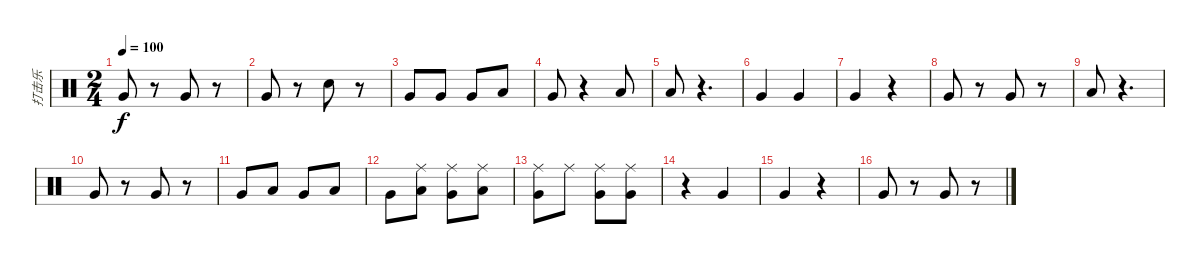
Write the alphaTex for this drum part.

\track ("打击乐" "打击乐") {instrument percussion}
\staff {score}
\articulation defaults
\ts (2 4)
\tempo 100
\clef neutral
\ks c "Very Low Tom (hit)".8{dy f}
r.8 "Very Low Tom (hit)".8 r.8 |
"Very Low Tom (hit)".8 r.8 "Electric Snare (hit)".8 r.8 |
"Very Low Tom (hit)".8 "Very Low Tom (hit)".8 "Very Low Tom (hit)".8 "Low Floor Tom (hit)".8 |
"Very Low Tom (hit)".8 r.4 "Low Floor Tom (hit)".8 |
"Low Tom (hit)".8 r.4{d} |
"Very Low Tom (hit)".4 "Very Low Tom (hit)".4 |
"Very Low Tom (hit)".4 r.4 |
"Very Low Tom (hit)".8 r.8 "Very Low Tom (hit)".8 r.8 |
"Low Floor Tom (hit)".8 r.4{d} |
"Very Low Tom (hit)".8 r.8 "Very Low Tom (hit)".8 r.8 |
"Very Low Tom (hit)".8 "Low Floor Tom (hit)".8 "Very Low Tom (hit)".8 "Low Floor Tom (hit)".8 |
"Very Low Tom (hit)".8 ("Ride (middle)" "Low Floor Tom (hit)").8 ("Ride (middle)" "Very Low Tom (hit)").8 ("Ride (middle)" "Low Floor Tom (hit)").8 |
("Ride (middle)" "Very Low Tom (hit)").8 "Ride (middle)".8 ("Ride (middle)" "Very Low Tom (hit)").8 ("Ride (middle)" "Very Low Tom (hit)").8 |
r.4 "Very Low Tom (hit)".4 |
"Very Low Tom (hit)".4 r.4 |
"Very Low Tom (hit)".8 r.8 "Very Low Tom (hit)".8 r.8
